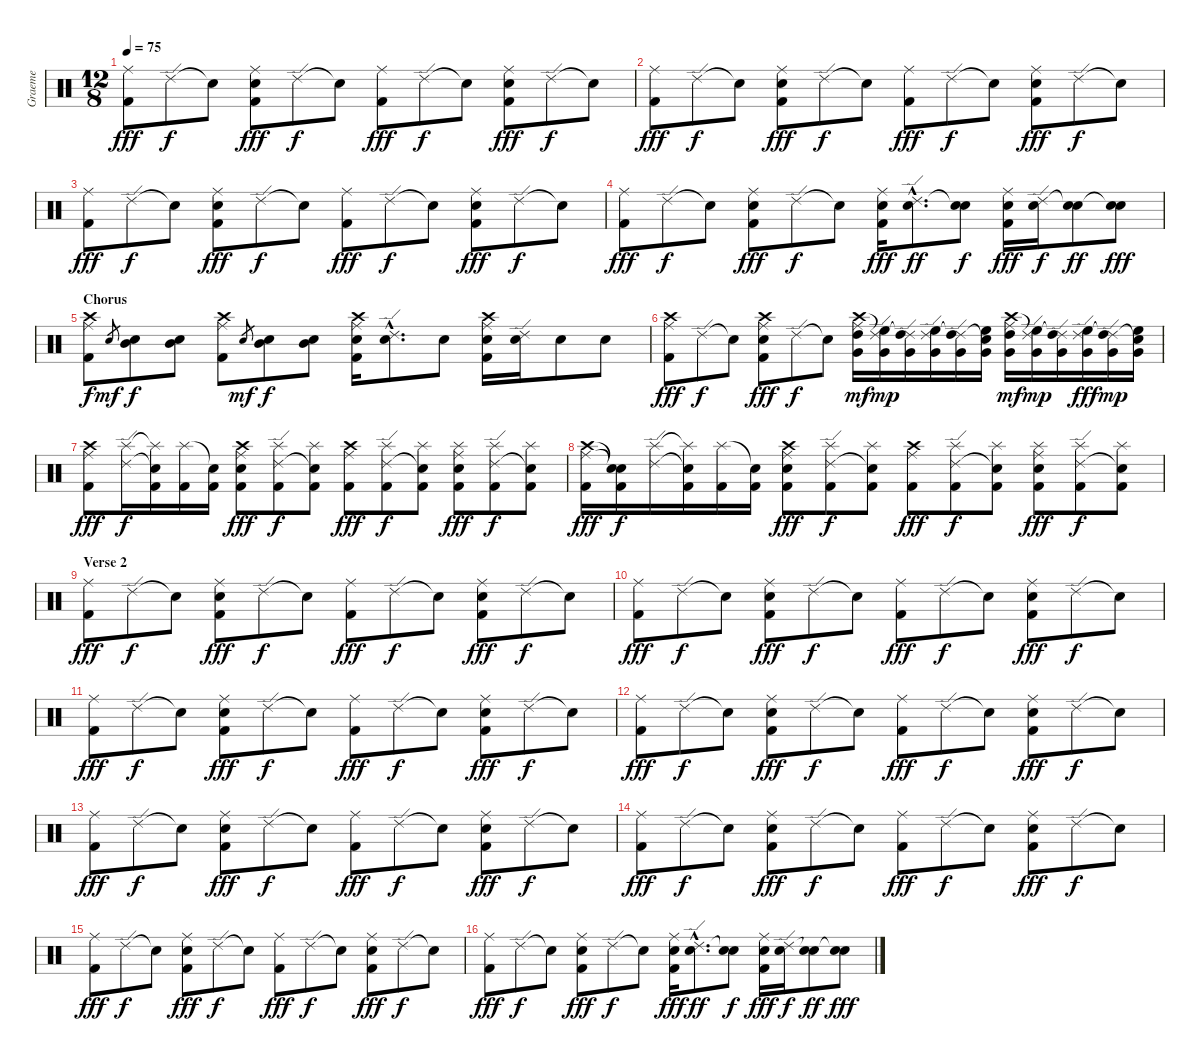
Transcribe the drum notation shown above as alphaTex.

\track ("Graeme" "Graeme") {instrument percussion}
\staff {score}
\articulation defaults
\ts (12 8)
\tempo 75
\clef neutral
\ks c
("Ride (middle)" "Kick (hit) 2").8{dy fff} "Ride (edge) 2".8{dy f} "Snare (hit)"{t}.8 ("Ride (middle)" "Electric Snare (hit)" "Kick (hit) 2").8{dy fff} "Ride (edge) 2".8{dy f} "Snare (hit)"{t}.8 ("Ride (middle)" "Kick (hit) 2").8{dy fff} "Ride (edge) 2".8{dy f} "Snare (hit)"{t}.8 ("Ride (middle)" "Electric Snare (hit)" "Kick (hit) 2").8{dy fff} "Ride (edge) 2".8{dy f} "Snare (hit)"{t}.8 |
("Ride (middle)" "Kick (hit) 2").8{dy fff} "Ride (edge) 2".8{dy f} "Snare (hit)"{t}.8 ("Ride (middle)" "Electric Snare (hit)" "Kick (hit) 2").8{dy fff} "Ride (edge) 2".8{dy f} "Snare (hit)"{t}.8 ("Ride (middle)" "Kick (hit) 2").8{dy fff} "Ride (edge) 2".8{dy f} "Snare (hit)"{t}.8 ("Ride (middle)" "Electric Snare (hit)" "Kick (hit) 2").8{dy fff} "Ride (edge) 2".8{dy f} "Snare (hit)"{t}.8 |
("Ride (middle)" "Kick (hit) 2").8{dy fff} "Ride (edge) 2".8{dy f} "Snare (hit)"{t}.8 ("Ride (middle)" "Electric Snare (hit)" "Kick (hit) 2").8{dy fff} "Ride (edge) 2".8{dy f} "Snare (hit)"{t}.8 ("Ride (middle)" "Kick (hit) 2").8{dy fff} "Ride (edge) 2".8{dy f} "Snare (hit)"{t}.8 ("Ride (middle)" "Electric Snare (hit)" "Kick (hit) 2").8{dy fff} "Ride (edge) 2".8{dy f} "Snare (hit)"{t}.8 |
("Ride (middle)" "Kick (hit) 2").8{dy fff} "Ride (edge) 2".8{dy f} "Snare (hit)"{t}.8 ("Ride (middle)" "Electric Snare (hit)" "Kick (hit) 2").8{dy fff} "Ride (edge) 2".8{dy f} "Snare (hit)"{t}.8 ("Ride (middle)" "Electric Snare (hit)" "Kick (hit) 2").16{dy fff} ("Ride (edge) 2"{hac} "Electric Snare (hit)"{hac}).8{d dy ff} ("Snare (hit)"{t} "Electric Snare (hit)").8{dy f} ("Ride (middle)" "Electric Snare (hit)" "Kick (hit) 2").16{dy fff} ("Ride (edge) 2" "Electric Snare (hit)").16{dy f} ("Snare (hit)"{t} "Electric Snare (hit)").8{dy ff} ("Snare (hit)"{t} "Electric Snare (hit)").8{dy fff} |
\section ("" "Chorus")
("Crash high (hit)" "Ride (middle)" "Kick (hit) 2").8{dy f} "Electric Snare (hit)".8{gr dy mf} ("Mid Tom (hit)" "Electric Snare (hit)").8{dy f} ("Mid Tom (hit)" "Electric Snare (hit)").8 ("Crash high (hit)" "Ride (middle)" "Kick (hit) 2").8 "Electric Snare (hit)".8{gr dy mf} ("Mid Tom (hit)" "Electric Snare (hit)").8{dy f} ("Mid Tom (hit)" "Electric Snare (hit)").8 ("Crash high (hit)" "Ride (middle)" "Electric Snare (hit)" "Kick (hit) 2").16 ("Ride (edge) 2"{hac} "Electric Snare (hit)"{hac}).8{d} "Electric Snare (hit)".8 ("Crash high (hit)" "Ride (middle)" "Electric Snare (hit)" "Kick (hit) 2").16 ("Ride (edge) 2" "Electric Snare (hit)").16 "Electric Snare (hit)".8 "Electric Snare (hit)".8 |
("Crash high (hit)" "Ride (middle)" "Kick (hit) 2").8{dy fff} "Ride (edge) 2".8{dy f} "Snare (hit)"{t}.8 ("Crash high (hit)" "Ride (middle)" "Electric Snare (hit)" "Kick (hit) 2").8{dy fff} "Ride (edge) 2".8{dy f} "Snare (hit)"{t}.8 ("Crash high (hit)" "Ride (middle)" "High Tom (hit)" "Very Low Tom (hit)").16{dy mf} ("Ride (edge) 2"{t} "High Floor Tom (hit)" "Very Low Tom (hit)").16{dy mp} ("Ride (edge) 2"{t} "High Tom (hit)" "Very Low Tom (hit)").16 ("Ride (edge) 2" "High Floor Tom (hit)" "Very Low Tom (hit)").16 ("Ride (edge) 2"{t} "High Tom (hit)" "Very Low Tom (hit)").16 ("Snare (hit)"{t} "High Floor Tom (hit)" "Very Low Tom (hit)").16 ("Crash high (hit)" "Ride (middle)" "High Tom (hit)" "Very Low Tom (hit)").16{dy mf} ("Ride (edge) 2"{t} "High Floor Tom (hit)" "Very Low Tom (hit)").16{dy mp} ("Ride (edge) 2"{t} "High Tom (hit)" "Very Low Tom (hit)").16 ("Ride (edge) 2" "High Floor Tom (hit)" "Very Low Tom (hit)").16{dy fff} ("Ride (edge) 2"{t} "High Tom (hit)" "Very Low Tom (hit)").16{dy mp} ("Snare (hit)"{t} "High Floor Tom (hit)" "Very Low Tom (hit)").16 |
("Crash high (hit)" "Ride (middle)" "Kick (hit) 2").8{dy fff} ("Splash (hit)" "Ride (edge) 2").16{dy f} ("Splash (hit)"{t} "Snare (hit)"{t} "Kick (hit) 2").16 ("Splash (hit)" "Kick (hit) 2").16 ("Snare (hit)"{t} "Kick (hit) 2").16 ("Crash high (hit)" "Ride (middle)" "Electric Snare (hit)" "Kick (hit) 2").8{dy fff} ("Splash (hit)" "Ride (edge) 2" "Kick (hit) 2").8{dy f} ("Splash (hit)" "Snare (hit)"{t} "Kick (hit) 2").8 ("Crash high (hit)" "Ride (middle)" "Kick (hit) 2").8{dy fff} ("Splash (hit)" "Ride (edge) 2" "Kick (hit) 2").8{dy f} ("Splash (hit)" "Snare (hit)"{t} "Kick (hit) 2").8 ("Splash (hit)" "Ride (middle)" "Electric Snare (hit)" "Kick (hit) 2").8{dy fff} ("Splash (hit)" "Ride (edge) 2" "Kick (hit) 2").8{dy f} ("Splash (hit)" "Snare (hit)"{t} "Kick (hit) 2").8 |
("Crash high (hit)" "Ride (middle)" "Kick (hit) 2").16{dy fff} ("Snare (hit)"{t} "Snare (hit)"{t} "Kick (hit) 2").16{dy f} ("Splash (hit)" "Ride (edge) 2").16 ("Splash (hit)"{t} "Snare (hit)"{t} "Kick (hit) 2").16 ("Splash (hit)" "Kick (hit) 2").16 ("Snare (hit)"{t} "Kick (hit) 2").16 ("Crash high (hit)" "Ride (middle)" "Electric Snare (hit)" "Kick (hit) 2").8{dy fff} ("Splash (hit)" "Ride (edge) 2" "Kick (hit) 2").8{dy f} ("Splash (hit)" "Snare (hit)"{t} "Kick (hit) 2").8 ("Crash high (hit)" "Ride (middle)" "Kick (hit) 2").8{dy fff} ("Splash (hit)" "Ride (edge) 2" "Kick (hit) 2").8{dy f} ("Splash (hit)" "Snare (hit)"{t} "Kick (hit) 2").8 ("Splash (hit)" "Ride (middle)" "Electric Snare (hit)" "Kick (hit) 2").8{dy fff} ("Splash (hit)" "Ride (edge) 2" "Kick (hit) 2").8{dy f} ("Splash (hit)" "Snare (hit)"{t} "Kick (hit) 2").8 |
\section ("" "Verse 2")
("Ride (middle)" "Kick (hit) 2").8{dy fff} "Ride (edge) 2".8{dy f} "Snare (hit)"{t}.8 ("Ride (middle)" "Electric Snare (hit)" "Kick (hit) 2").8{dy fff} "Ride (edge) 2".8{dy f} "Snare (hit)"{t}.8 ("Ride (middle)" "Kick (hit) 2").8{dy fff} "Ride (edge) 2".8{dy f} "Snare (hit)"{t}.8 ("Ride (middle)" "Electric Snare (hit)" "Kick (hit) 2").8{dy fff} "Ride (edge) 2".8{dy f} "Snare (hit)"{t}.8 |
("Ride (middle)" "Kick (hit) 2").8{dy fff} "Ride (edge) 2".8{dy f} "Snare (hit)"{t}.8 ("Ride (middle)" "Electric Snare (hit)" "Kick (hit) 2").8{dy fff} "Ride (edge) 2".8{dy f} "Snare (hit)"{t}.8 ("Ride (middle)" "Kick (hit) 2").8{dy fff} "Ride (edge) 2".8{dy f} "Snare (hit)"{t}.8 ("Ride (middle)" "Electric Snare (hit)" "Kick (hit) 2").8{dy fff} "Ride (edge) 2".8{dy f} "Snare (hit)"{t}.8 |
("Ride (middle)" "Kick (hit) 2").8{dy fff} "Ride (edge) 2".8{dy f} "Snare (hit)"{t}.8 ("Ride (middle)" "Electric Snare (hit)" "Kick (hit) 2").8{dy fff} "Ride (edge) 2".8{dy f} "Snare (hit)"{t}.8 ("Ride (middle)" "Kick (hit) 2").8{dy fff} "Ride (edge) 2".8{dy f} "Snare (hit)"{t}.8 ("Ride (middle)" "Electric Snare (hit)" "Kick (hit) 2").8{dy fff} "Ride (edge) 2".8{dy f} "Snare (hit)"{t}.8 |
("Ride (middle)" "Kick (hit) 2").8{dy fff} "Ride (edge) 2".8{dy f} "Snare (hit)"{t}.8 ("Ride (middle)" "Electric Snare (hit)" "Kick (hit) 2").8{dy fff} "Ride (edge) 2".8{dy f} "Snare (hit)"{t}.8 ("Ride (middle)" "Kick (hit) 2").8{dy fff} "Ride (edge) 2".8{dy f} "Snare (hit)"{t}.8 ("Ride (middle)" "Electric Snare (hit)" "Kick (hit) 2").8{dy fff} "Ride (edge) 2".8{dy f} "Snare (hit)"{t}.8 |
("Ride (middle)" "Kick (hit) 2").8{dy fff} "Ride (edge) 2".8{dy f} "Snare (hit)"{t}.8 ("Ride (middle)" "Electric Snare (hit)" "Kick (hit) 2").8{dy fff} "Ride (edge) 2".8{dy f} "Snare (hit)"{t}.8 ("Ride (middle)" "Kick (hit) 2").8{dy fff} "Ride (edge) 2".8{dy f} "Snare (hit)"{t}.8 ("Ride (middle)" "Electric Snare (hit)" "Kick (hit) 2").8{dy fff} "Ride (edge) 2".8{dy f} "Snare (hit)"{t}.8 |
("Ride (middle)" "Kick (hit) 2").8{dy fff} "Ride (edge) 2".8{dy f} "Snare (hit)"{t}.8 ("Ride (middle)" "Electric Snare (hit)" "Kick (hit) 2").8{dy fff} "Ride (edge) 2".8{dy f} "Snare (hit)"{t}.8 ("Ride (middle)" "Kick (hit) 2").8{dy fff} "Ride (edge) 2".8{dy f} "Snare (hit)"{t}.8 ("Ride (middle)" "Electric Snare (hit)" "Kick (hit) 2").8{dy fff} "Ride (edge) 2".8{dy f} "Snare (hit)"{t}.8 |
("Ride (middle)" "Kick (hit) 2").8{dy fff} "Ride (edge) 2".8{dy f} "Snare (hit)"{t}.8 ("Ride (middle)" "Electric Snare (hit)" "Kick (hit) 2").8{dy fff} "Ride (edge) 2".8{dy f} "Snare (hit)"{t}.8 ("Ride (middle)" "Kick (hit) 2").8{dy fff} "Ride (edge) 2".8{dy f} "Snare (hit)"{t}.8 ("Ride (middle)" "Electric Snare (hit)" "Kick (hit) 2").8{dy fff} "Ride (edge) 2".8{dy f} "Snare (hit)"{t}.8 |
("Ride (middle)" "Kick (hit) 2").8{dy fff} "Ride (edge) 2".8{dy f} "Snare (hit)"{t}.8 ("Ride (middle)" "Electric Snare (hit)" "Kick (hit) 2").8{dy fff} "Ride (edge) 2".8{dy f} "Snare (hit)"{t}.8 ("Ride (middle)" "Electric Snare (hit)" "Kick (hit) 2").16{dy fff} ("Ride (edge) 2"{hac} "Electric Snare (hit)"{hac}).8{d dy ff} ("Snare (hit)"{t} "Electric Snare (hit)").8{dy f} ("Ride (middle)" "Electric Snare (hit)" "Kick (hit) 2").16{dy fff} ("Ride (edge) 2" "Electric Snare (hit)").16{dy f} ("Snare (hit)"{t} "Electric Snare (hit)").8{dy ff} ("Snare (hit)"{t} "Electric Snare (hit)").8{dy fff}
